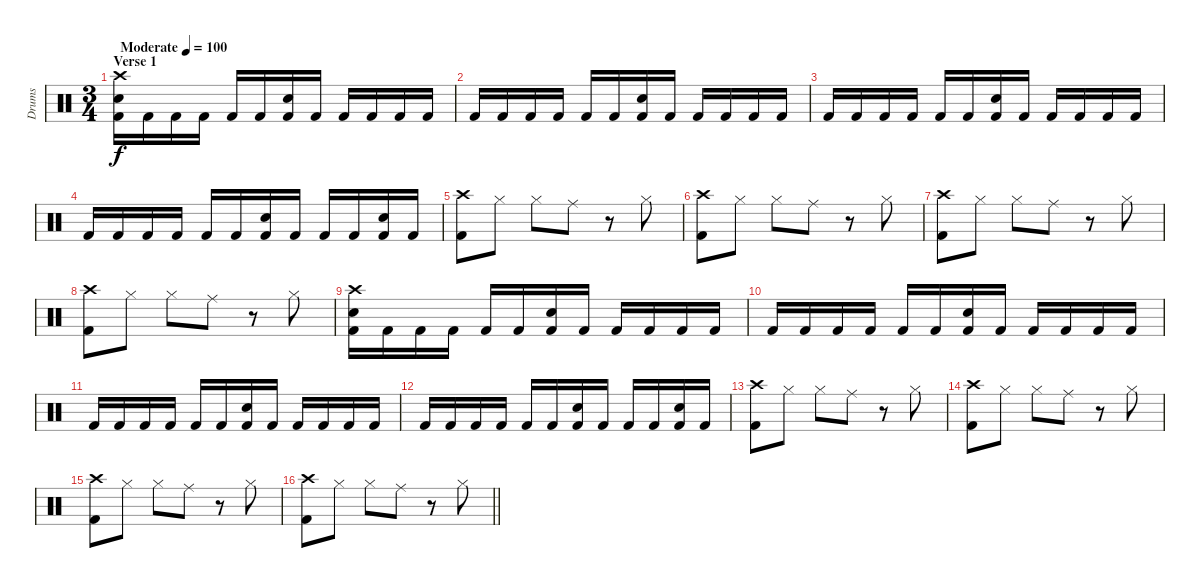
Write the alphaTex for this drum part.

\track ("Drums" "Drums") {instrument percussion}
\staff {score}
\articulation defaults
\ts (3 4)
\section ("" "Verse 1")
\tempo (100 "Moderate")
\clef neutral
\ks c
("Crash high (hit)" "Snare (hit) 2" "Kick (hit) 2").16{dy f} "Kick (hit) 2".16 "Kick (hit) 2".16 "Kick (hit) 2".16 "Kick (hit) 2".16 "Kick (hit) 2".16 ("Snare (hit) 2" "Kick (hit) 2").16 "Kick (hit) 2".16 "Kick (hit) 2".16 "Kick (hit) 2".16 "Kick (hit) 2".16 "Kick (hit) 2".16 |
"Kick (hit) 2".16 "Kick (hit) 2".16 "Kick (hit) 2".16 "Kick (hit) 2".16 "Kick (hit) 2".16 "Kick (hit) 2".16 ("Snare (hit) 2" "Kick (hit) 2").16 "Kick (hit) 2".16 "Kick (hit) 2".16 "Kick (hit) 2".16 "Kick (hit) 2".16 "Kick (hit) 2".16 |
"Kick (hit) 2".16 "Kick (hit) 2".16 "Kick (hit) 2".16 "Kick (hit) 2".16 "Kick (hit) 2".16 "Kick (hit) 2".16 ("Snare (hit) 2" "Kick (hit) 2").16 "Kick (hit) 2".16 "Kick (hit) 2".16 "Kick (hit) 2".16 "Kick (hit) 2".16 "Kick (hit) 2".16 |
"Kick (hit) 2".16 "Kick (hit) 2".16 "Kick (hit) 2".16 "Kick (hit) 2".16 "Kick (hit) 2".16 "Kick (hit) 2".16 ("Snare (hit) 2" "Kick (hit) 2").16 "Kick (hit) 2".16 "Kick (hit) 2".16 "Kick (hit) 2".16 ("Snare (hit) 2" "Kick (hit) 2").16 "Kick (hit) 2".16 |
("Crash high (hit)" "Kick (hit) 2").8 "Hi-Hat (closed)".8 "Hi-Hat (closed)".8 "Ride (middle)".8 r.8 "Hi-Hat (closed)".8 |
("Crash high (hit)" "Kick (hit) 2").8 "Hi-Hat (closed)".8 "Hi-Hat (closed)".8 "Ride (middle)".8 r.8 "Hi-Hat (closed)".8 |
("Crash high (hit)" "Kick (hit) 2").8 "Hi-Hat (closed)".8 "Hi-Hat (closed)".8 "Ride (middle)".8 r.8 "Hi-Hat (closed)".8 |
("Crash high (hit)" "Kick (hit) 2").8 "Hi-Hat (closed)".8 "Hi-Hat (closed)".8 "Ride (middle)".8 r.8 "Hi-Hat (closed)".8 |
("Crash high (hit)" "Snare (hit) 2" "Kick (hit) 2").16 "Kick (hit) 2".16 "Kick (hit) 2".16 "Kick (hit) 2".16 "Kick (hit) 2".16 "Kick (hit) 2".16 ("Snare (hit) 2" "Kick (hit) 2").16 "Kick (hit) 2".16 "Kick (hit) 2".16 "Kick (hit) 2".16 "Kick (hit) 2".16 "Kick (hit) 2".16 |
"Kick (hit) 2".16 "Kick (hit) 2".16 "Kick (hit) 2".16 "Kick (hit) 2".16 "Kick (hit) 2".16 "Kick (hit) 2".16 ("Snare (hit) 2" "Kick (hit) 2").16 "Kick (hit) 2".16 "Kick (hit) 2".16 "Kick (hit) 2".16 "Kick (hit) 2".16 "Kick (hit) 2".16 |
"Kick (hit) 2".16 "Kick (hit) 2".16 "Kick (hit) 2".16 "Kick (hit) 2".16 "Kick (hit) 2".16 "Kick (hit) 2".16 ("Snare (hit) 2" "Kick (hit) 2").16 "Kick (hit) 2".16 "Kick (hit) 2".16 "Kick (hit) 2".16 "Kick (hit) 2".16 "Kick (hit) 2".16 |
"Kick (hit) 2".16 "Kick (hit) 2".16 "Kick (hit) 2".16 "Kick (hit) 2".16 "Kick (hit) 2".16 "Kick (hit) 2".16 ("Snare (hit) 2" "Kick (hit) 2").16 "Kick (hit) 2".16 "Kick (hit) 2".16 "Kick (hit) 2".16 ("Snare (hit) 2" "Kick (hit) 2").16 "Kick (hit) 2".16 |
("Crash high (hit)" "Kick (hit) 2").8 "Hi-Hat (closed)".8 "Hi-Hat (closed)".8 "Ride (middle)".8 r.8 "Hi-Hat (closed)".8 |
("Crash high (hit)" "Kick (hit) 2").8 "Hi-Hat (closed)".8 "Hi-Hat (closed)".8 "Ride (middle)".8 r.8 "Hi-Hat (closed)".8 |
("Crash high (hit)" "Kick (hit) 2").8 "Hi-Hat (closed)".8 "Hi-Hat (closed)".8 "Ride (middle)".8 r.8 "Hi-Hat (closed)".8 |
\barLineRight lightlight
("Crash high (hit)" "Kick (hit) 2").8 "Hi-Hat (closed)".8 "Hi-Hat (closed)".8 "Ride (middle)".8 r.8 "Hi-Hat (closed)".8
